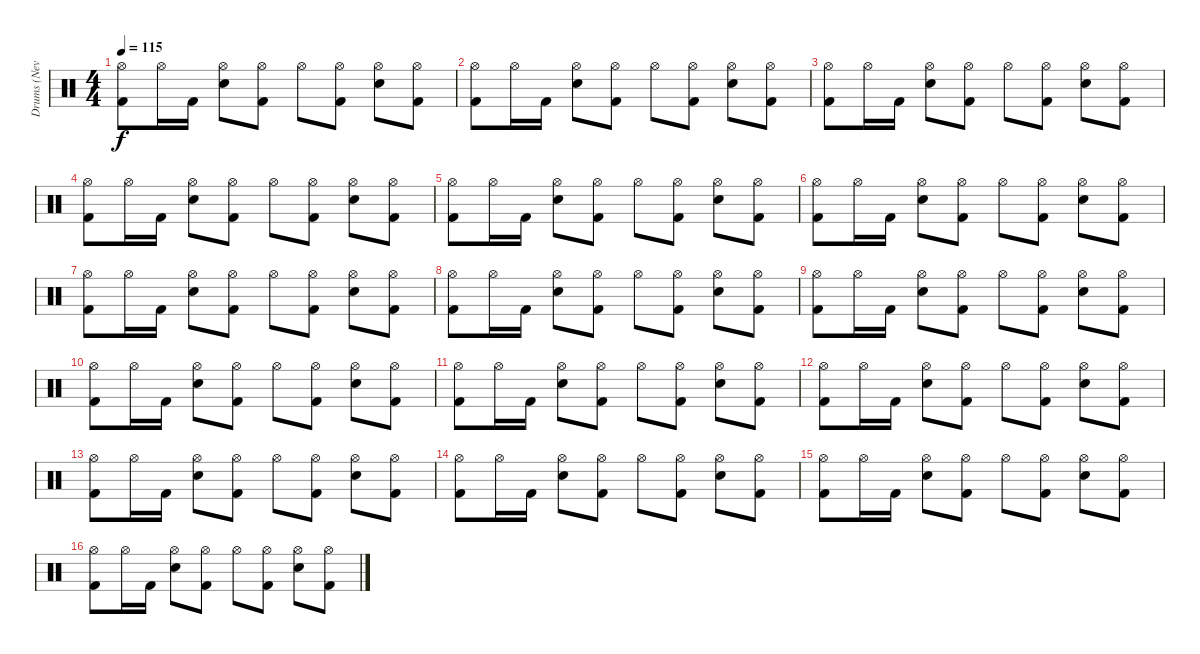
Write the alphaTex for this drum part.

\track ("Drums (Nevi)" "Drums (Nev") {instrument percussion}
\staff {score}
\articulation defaults
\ts (4 4)
\tempo 115
\clef neutral
\ks c
("Kick (hit) 2" "Hi-Hat (open)").8{dy f} "Hi-Hat (open)".16 "Kick (hit) 2".16 ("Snare (hit) 2" "Hi-Hat (open)").8 ("Kick (hit) 2" "Hi-Hat (open)").8 "Hi-Hat (open)".8 ("Kick (hit) 2" "Hi-Hat (open)").8 ("Snare (hit) 2" "Hi-Hat (open)").8 ("Kick (hit) 2" "Hi-Hat (open)").8 |
("Kick (hit) 2" "Hi-Hat (open)").8 "Hi-Hat (open)".16 "Kick (hit) 2".16 ("Snare (hit) 2" "Hi-Hat (open)").8 ("Kick (hit) 2" "Hi-Hat (open)").8 "Hi-Hat (open)".8 ("Kick (hit) 2" "Hi-Hat (open)").8 ("Snare (hit) 2" "Hi-Hat (open)").8 ("Kick (hit) 2" "Hi-Hat (open)").8 |
("Kick (hit) 2" "Hi-Hat (open)").8 "Hi-Hat (open)".16 "Kick (hit) 2".16 ("Snare (hit) 2" "Hi-Hat (open)").8 ("Kick (hit) 2" "Hi-Hat (open)").8 "Hi-Hat (open)".8 ("Kick (hit) 2" "Hi-Hat (open)").8 ("Snare (hit) 2" "Hi-Hat (open)").8 ("Kick (hit) 2" "Hi-Hat (open)").8 |
("Kick (hit) 2" "Hi-Hat (open)").8 "Hi-Hat (open)".16 "Kick (hit) 2".16 ("Snare (hit) 2" "Hi-Hat (open)").8 ("Kick (hit) 2" "Hi-Hat (open)").8 "Hi-Hat (open)".8 ("Kick (hit) 2" "Hi-Hat (open)").8 ("Snare (hit) 2" "Hi-Hat (open)").8 ("Kick (hit) 2" "Hi-Hat (open)").8 |
("Kick (hit) 2" "Hi-Hat (open)").8 "Hi-Hat (open)".16 "Kick (hit) 2".16 ("Snare (hit) 2" "Hi-Hat (open)").8 ("Kick (hit) 2" "Hi-Hat (open)").8 "Hi-Hat (open)".8 ("Kick (hit) 2" "Hi-Hat (open)").8 ("Snare (hit) 2" "Hi-Hat (open)").8 ("Kick (hit) 2" "Hi-Hat (open)").8 |
("Kick (hit) 2" "Hi-Hat (open)").8 "Hi-Hat (open)".16 "Kick (hit) 2".16 ("Snare (hit) 2" "Hi-Hat (open)").8 ("Kick (hit) 2" "Hi-Hat (open)").8 "Hi-Hat (open)".8 ("Kick (hit) 2" "Hi-Hat (open)").8 ("Snare (hit) 2" "Hi-Hat (open)").8 ("Kick (hit) 2" "Hi-Hat (open)").8 |
("Kick (hit) 2" "Hi-Hat (open)").8 "Hi-Hat (open)".16 "Kick (hit) 2".16 ("Snare (hit) 2" "Hi-Hat (open)").8 ("Kick (hit) 2" "Hi-Hat (open)").8 "Hi-Hat (open)".8 ("Kick (hit) 2" "Hi-Hat (open)").8 ("Snare (hit) 2" "Hi-Hat (open)").8 ("Kick (hit) 2" "Hi-Hat (open)").8 |
("Kick (hit) 2" "Hi-Hat (open)").8 "Hi-Hat (open)".16 "Kick (hit) 2".16 ("Snare (hit) 2" "Hi-Hat (open)").8 ("Kick (hit) 2" "Hi-Hat (open)").8 "Hi-Hat (open)".8 ("Kick (hit) 2" "Hi-Hat (open)").8 ("Snare (hit) 2" "Hi-Hat (open)").8 ("Kick (hit) 2" "Hi-Hat (open)").8 |
("Kick (hit) 2" "Hi-Hat (open)").8 "Hi-Hat (open)".16 "Kick (hit) 2".16 ("Snare (hit) 2" "Hi-Hat (open)").8 ("Kick (hit) 2" "Hi-Hat (open)").8 "Hi-Hat (open)".8 ("Kick (hit) 2" "Hi-Hat (open)").8 ("Snare (hit) 2" "Hi-Hat (open)").8 ("Kick (hit) 2" "Hi-Hat (open)").8 |
("Kick (hit) 2" "Hi-Hat (open)").8 "Hi-Hat (open)".16 "Kick (hit) 2".16 ("Snare (hit) 2" "Hi-Hat (open)").8 ("Kick (hit) 2" "Hi-Hat (open)").8 "Hi-Hat (open)".8 ("Kick (hit) 2" "Hi-Hat (open)").8 ("Snare (hit) 2" "Hi-Hat (open)").8 ("Kick (hit) 2" "Hi-Hat (open)").8 |
("Kick (hit) 2" "Hi-Hat (open)").8 "Hi-Hat (open)".16 "Kick (hit) 2".16 ("Snare (hit) 2" "Hi-Hat (open)").8 ("Kick (hit) 2" "Hi-Hat (open)").8 "Hi-Hat (open)".8 ("Kick (hit) 2" "Hi-Hat (open)").8 ("Snare (hit) 2" "Hi-Hat (open)").8 ("Kick (hit) 2" "Hi-Hat (open)").8 |
("Kick (hit) 2" "Hi-Hat (open)").8 "Hi-Hat (open)".16 "Kick (hit) 2".16 ("Snare (hit) 2" "Hi-Hat (open)").8 ("Kick (hit) 2" "Hi-Hat (open)").8 "Hi-Hat (open)".8 ("Kick (hit) 2" "Hi-Hat (open)").8 ("Snare (hit) 2" "Hi-Hat (open)").8 ("Kick (hit) 2" "Hi-Hat (open)").8 |
("Kick (hit) 2" "Hi-Hat (open)").8 "Hi-Hat (open)".16 "Kick (hit) 2".16 ("Snare (hit) 2" "Hi-Hat (open)").8 ("Kick (hit) 2" "Hi-Hat (open)").8 "Hi-Hat (open)".8 ("Kick (hit) 2" "Hi-Hat (open)").8 ("Snare (hit) 2" "Hi-Hat (open)").8 ("Kick (hit) 2" "Hi-Hat (open)").8 |
("Kick (hit) 2" "Hi-Hat (open)").8 "Hi-Hat (open)".16 "Kick (hit) 2".16 ("Snare (hit) 2" "Hi-Hat (open)").8 ("Kick (hit) 2" "Hi-Hat (open)").8 "Hi-Hat (open)".8 ("Kick (hit) 2" "Hi-Hat (open)").8 ("Snare (hit) 2" "Hi-Hat (open)").8 ("Kick (hit) 2" "Hi-Hat (open)").8 |
("Kick (hit) 2" "Hi-Hat (open)").8 "Hi-Hat (open)".16 "Kick (hit) 2".16 ("Snare (hit) 2" "Hi-Hat (open)").8 ("Kick (hit) 2" "Hi-Hat (open)").8 "Hi-Hat (open)".8 ("Kick (hit) 2" "Hi-Hat (open)").8 ("Snare (hit) 2" "Hi-Hat (open)").8 ("Kick (hit) 2" "Hi-Hat (open)").8 |
("Kick (hit) 2" "Hi-Hat (open)").8 "Hi-Hat (open)".16 "Kick (hit) 2".16 ("Snare (hit) 2" "Hi-Hat (open)").8 ("Kick (hit) 2" "Hi-Hat (open)").8 "Hi-Hat (open)".8 ("Kick (hit) 2" "Hi-Hat (open)").8 ("Snare (hit) 2" "Hi-Hat (open)").8 ("Kick (hit) 2" "Hi-Hat (open)").8
